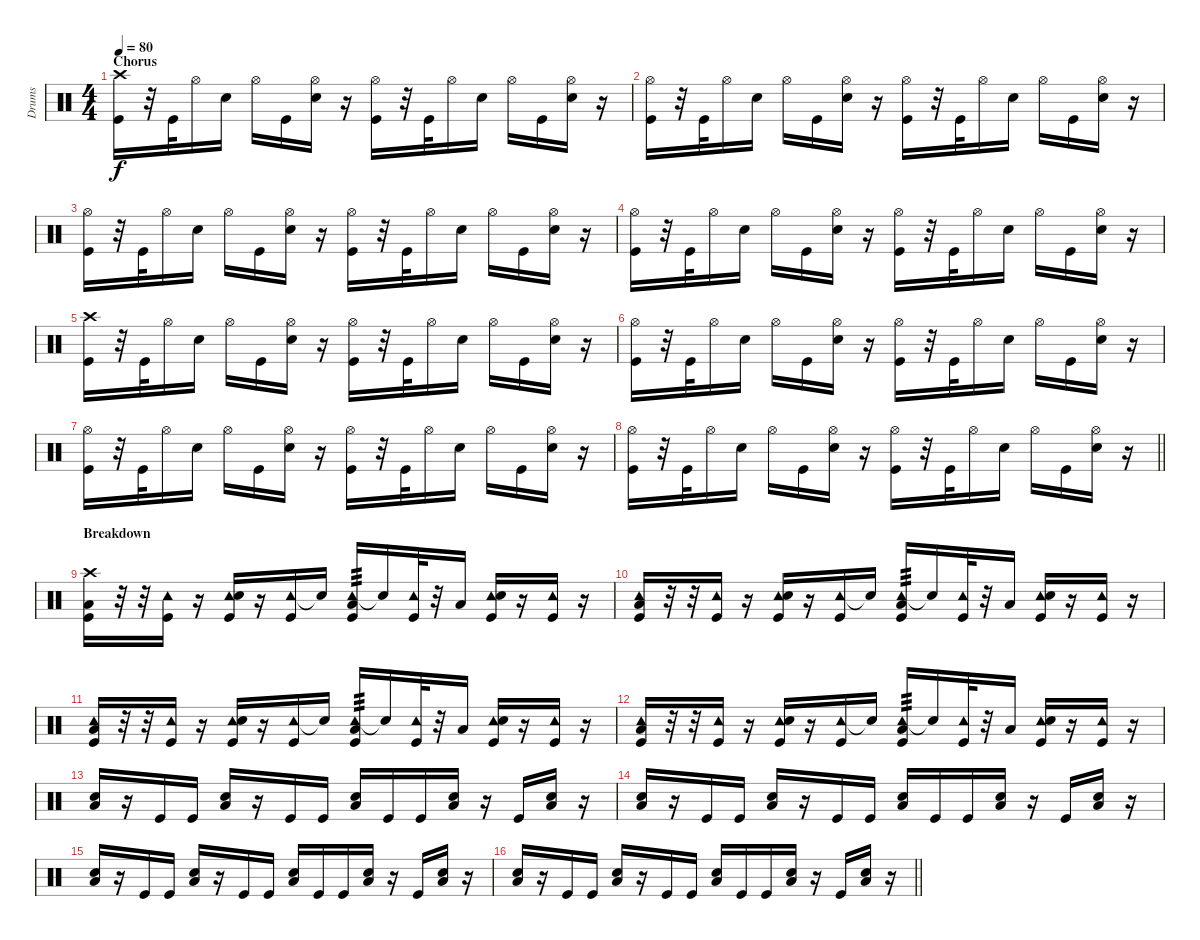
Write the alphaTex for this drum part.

\track ("Drums" "Drums") {instrument percussion}
\staff {score}
\articulation defaults
\ts (4 4)
\section ("" "Chorus")
\tempo 80
\clef neutral
\ks c
("Crash high (hit)" "Kick (hit)").16{dy f} r.32 "Kick (hit)".32 "Hi-Hat (open)".16 "Electric Snare (hit)".16 "Hi-Hat (open)".16 "Kick (hit)".16 ("Hi-Hat (open)" "Electric Snare (hit)").16 r.16 ("Hi-Hat (open)" "Kick (hit)").16 r.32 "Kick (hit)".32 "Hi-Hat (open)".16 "Electric Snare (hit)".16 "Hi-Hat (open)".16 "Kick (hit)".16 ("Hi-Hat (open)" "Electric Snare (hit)").16 r.16 |
("Hi-Hat (open)" "Kick (hit)").16 r.32 "Kick (hit)".32 "Hi-Hat (open)".16 "Electric Snare (hit)".16 "Hi-Hat (open)".16 "Kick (hit)".16 ("Hi-Hat (open)" "Electric Snare (hit)").16 r.16 ("Hi-Hat (open)" "Kick (hit)").16 r.32 "Kick (hit)".32 "Hi-Hat (open)".16 "Electric Snare (hit)".16 "Hi-Hat (open)".16 "Kick (hit)".16 ("Hi-Hat (open)" "Electric Snare (hit)").16 r.16 |
("Hi-Hat (open)" "Kick (hit)").16 r.32 "Kick (hit)".32 "Hi-Hat (open)".16 "Electric Snare (hit)".16 "Hi-Hat (open)".16 "Kick (hit)".16 ("Hi-Hat (open)" "Electric Snare (hit)").16 r.16 ("Hi-Hat (open)" "Kick (hit)").16 r.32 "Kick (hit)".32 "Hi-Hat (open)".16 "Electric Snare (hit)".16 "Hi-Hat (open)".16 "Kick (hit)".16 ("Hi-Hat (open)" "Electric Snare (hit)").16 r.16 |
("Hi-Hat (open)" "Kick (hit)").16 r.32 "Kick (hit)".32 "Hi-Hat (open)".16 "Electric Snare (hit)".16 "Hi-Hat (open)".16 "Kick (hit)".16 ("Hi-Hat (open)" "Electric Snare (hit)").16 r.16 ("Hi-Hat (open)" "Kick (hit)").16 r.32 "Kick (hit)".32 "Hi-Hat (open)".16 "Electric Snare (hit)".16 "Hi-Hat (open)".16 "Kick (hit)".16 ("Hi-Hat (open)" "Electric Snare (hit)").16 r.16 |
("Crash high (hit)" "Kick (hit)").16 r.32 "Kick (hit)".32 "Hi-Hat (open)".16 "Electric Snare (hit)".16 "Hi-Hat (open)".16 "Kick (hit)".16 ("Hi-Hat (open)" "Electric Snare (hit)").16 r.16 ("Hi-Hat (open)" "Kick (hit)").16 r.32 "Kick (hit)".32 "Hi-Hat (open)".16 "Electric Snare (hit)".16 "Hi-Hat (open)".16 "Kick (hit)".16 ("Hi-Hat (open)" "Electric Snare (hit)").16 r.16 |
("Hi-Hat (open)" "Kick (hit)").16 r.32 "Kick (hit)".32 "Hi-Hat (open)".16 "Electric Snare (hit)".16 "Hi-Hat (open)".16 "Kick (hit)".16 ("Hi-Hat (open)" "Electric Snare (hit)").16 r.16 ("Hi-Hat (open)" "Kick (hit)").16 r.32 "Kick (hit)".32 "Hi-Hat (open)".16 "Electric Snare (hit)".16 "Hi-Hat (open)".16 "Kick (hit)".16 ("Hi-Hat (open)" "Electric Snare (hit)").16 r.16 |
("Hi-Hat (open)" "Kick (hit)").16 r.32 "Kick (hit)".32 "Hi-Hat (open)".16 "Electric Snare (hit)".16 "Hi-Hat (open)".16 "Kick (hit)".16 ("Hi-Hat (open)" "Electric Snare (hit)").16 r.16 ("Hi-Hat (open)" "Kick (hit)").16 r.32 "Kick (hit)".32 "Hi-Hat (open)".16 "Electric Snare (hit)".16 "Hi-Hat (open)".16 "Kick (hit)".16 ("Hi-Hat (open)" "Electric Snare (hit)").16 r.16 |
\barLineRight lightlight
("Hi-Hat (open)" "Kick (hit)").16 r.32 "Kick (hit)".32 "Hi-Hat (open)".16 "Electric Snare (hit)".16 "Hi-Hat (open)".16 "Kick (hit)".16 ("Hi-Hat (open)" "Electric Snare (hit)").16 r.16 ("Hi-Hat (open)" "Kick (hit)").16 r.32 "Kick (hit)".32 "Hi-Hat (open)".16 "Electric Snare (hit)".16 "Hi-Hat (open)".16 "Kick (hit)".16 ("Hi-Hat (open)" "Electric Snare (hit)").16 r.16 |
\section ("" "Breakdown")
("Crash high (hit)" "Low Tom (hit)" "Kick (hit)").16 r.32 r.32 ("Tambourine (hit)" "Kick (hit)").16 r.16 ("Tambourine (hit)" "Electric Snare (hit)" "Kick (hit)").16 r.16 ("Tambourine (hit)" "Kick (hit)").16 "Snare (hit)"{t}.16 ("Tambourine (hit)" "Low Tom (hit)" "Kick (hit)").16{tp 3} "Snare (hit)"{t}.16 ("Tambourine (hit)" "Kick (hit)").32 r.32 "Low Tom (hit)".16 ("Tambourine (hit)" "Electric Snare (hit)" "Kick (hit)").16 r.16 ("Tambourine (hit)" "Kick (hit)").16 r.16 |
("Tambourine (hit)" "Low Tom (hit)" "Kick (hit)").16 r.32 r.32 ("Tambourine (hit)" "Kick (hit)").16 r.16 ("Tambourine (hit)" "Electric Snare (hit)" "Kick (hit)").16 r.16 ("Tambourine (hit)" "Kick (hit)").16 "Snare (hit)"{t}.16 ("Tambourine (hit)" "Low Tom (hit)" "Kick (hit)").16{tp 3} "Snare (hit)"{t}.16 ("Tambourine (hit)" "Kick (hit)").32 r.32 "Low Tom (hit)".16 ("Tambourine (hit)" "Electric Snare (hit)" "Kick (hit)").16 r.16 ("Tambourine (hit)" "Kick (hit)").16 r.16 |
("Tambourine (hit)" "Low Tom (hit)" "Kick (hit)").16 r.32 r.32 ("Tambourine (hit)" "Kick (hit)").16 r.16 ("Tambourine (hit)" "Electric Snare (hit)" "Kick (hit)").16 r.16 ("Tambourine (hit)" "Kick (hit)").16 "Snare (hit)"{t}.16 ("Tambourine (hit)" "Low Tom (hit)" "Kick (hit)").16{tp 3} "Snare (hit)"{t}.16 ("Tambourine (hit)" "Kick (hit)").32 r.32 "Low Tom (hit)".16 ("Tambourine (hit)" "Electric Snare (hit)" "Kick (hit)").16 r.16 ("Tambourine (hit)" "Kick (hit)").16 r.16 |
("Tambourine (hit)" "Low Tom (hit)" "Kick (hit)").16 r.32 r.32 ("Tambourine (hit)" "Kick (hit)").16 r.16 ("Tambourine (hit)" "Electric Snare (hit)" "Kick (hit)").16 r.16 ("Tambourine (hit)" "Kick (hit)").16 "Snare (hit)"{t}.16 ("Tambourine (hit)" "Low Tom (hit)" "Kick (hit)").16{tp 3} "Snare (hit)"{t}.16 ("Tambourine (hit)" "Kick (hit)").32 r.32 "Low Tom (hit)".16 ("Tambourine (hit)" "Electric Snare (hit)" "Kick (hit)").16 r.16 ("Tambourine (hit)" "Kick (hit)").16 r.16 |
("Electric Snare (hit)" "Low Tom (hit)").16 r.16 "Kick (hit)".16 "Kick (hit)".16 ("Electric Snare (hit)" "Low Tom (hit)").16 r.16 "Kick (hit)".16 "Kick (hit)".16 ("Electric Snare (hit)" "Low Tom (hit)").16 "Kick (hit)".16 "Kick (hit)".16 ("Electric Snare (hit)" "Low Tom (hit)").16 r.16 "Kick (hit)".16 ("Electric Snare (hit)" "Low Tom (hit)").16 r.16 |
("Electric Snare (hit)" "Low Tom (hit)").16 r.16 "Kick (hit)".16 "Kick (hit)".16 ("Electric Snare (hit)" "Low Tom (hit)").16 r.16 "Kick (hit)".16 "Kick (hit)".16 ("Electric Snare (hit)" "Low Tom (hit)").16 "Kick (hit)".16 "Kick (hit)".16 ("Electric Snare (hit)" "Low Tom (hit)").16 r.16 "Kick (hit)".16 ("Electric Snare (hit)" "Low Tom (hit)").16 r.16 |
("Electric Snare (hit)" "Low Tom (hit)").16 r.16 "Kick (hit)".16 "Kick (hit)".16 ("Electric Snare (hit)" "Low Tom (hit)").16 r.16 "Kick (hit)".16 "Kick (hit)".16 ("Electric Snare (hit)" "Low Tom (hit)").16 "Kick (hit)".16 "Kick (hit)".16 ("Electric Snare (hit)" "Low Tom (hit)").16 r.16 "Kick (hit)".16 ("Electric Snare (hit)" "Low Tom (hit)").16 r.16 |
\barLineRight lightlight
("Electric Snare (hit)" "Low Tom (hit)").16 r.16 "Kick (hit)".16 "Kick (hit)".16 ("Electric Snare (hit)" "Low Tom (hit)").16 r.16 "Kick (hit)".16 "Kick (hit)".16 ("Electric Snare (hit)" "Low Tom (hit)").16 "Kick (hit)".16 "Kick (hit)".16 ("Electric Snare (hit)" "Low Tom (hit)").16 r.16 "Kick (hit)".16 ("Electric Snare (hit)" "Low Tom (hit)").16 r.16
